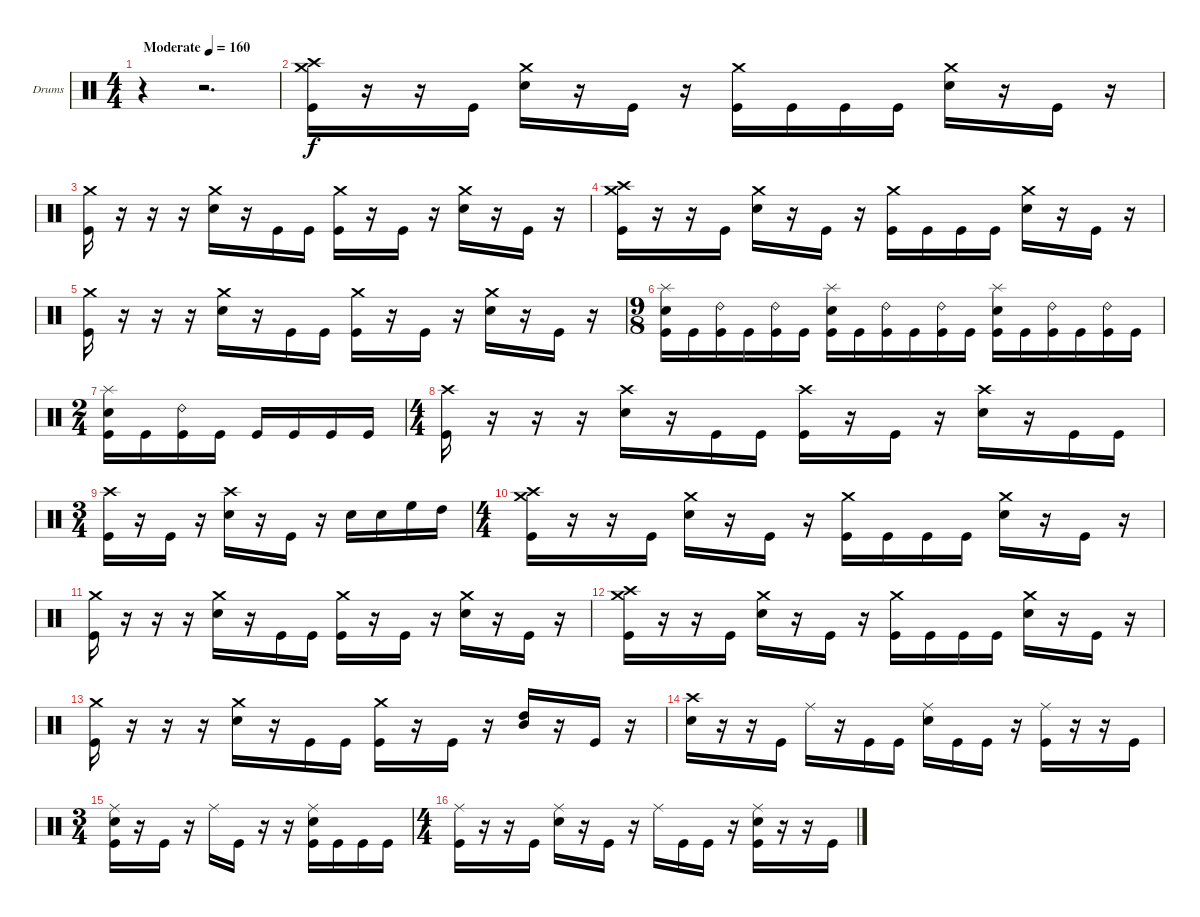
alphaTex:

\bracketExtendMode groupsimilarinstruments
\firstSystemTrackNameOrientation horizontal
\otherSystemsTrackNameOrientation horizontal
\track ("Drumkit" "Drums") {solo instrument percussion}
\staff {score}
\articulation defaults
\ts (4 4)
\beaming (8 2 2 2 2)
\tempo (160 "Moderate")
\clef neutral
\ks c
r.4{dy f} r.2{d} |
("Crash medium (hit)" "Crash high (hit)" "Kick (hit)").16 r.16 r.16 "Kick (hit)".16 ("Crash medium (hit)" "Snare (hit) 2").16 r.16 "Kick (hit)".16 r.16 ("Crash medium (hit)" "Kick (hit)").16 "Kick (hit)".16 "Kick (hit)".16 "Kick (hit)".16 ("Crash medium (hit)" "Snare (hit) 2").16 r.16 "Kick (hit)".16 r.16 |
("Crash medium (hit)" "Kick (hit)").16 r.16 r.16 r.16 ("Crash medium (hit)" "Snare (hit) 2").16 r.16 "Kick (hit)".16 "Kick (hit)".16 ("Crash medium (hit)" "Kick (hit)").16 r.16 "Kick (hit)".16 r.16 ("Crash medium (hit)" "Snare (hit) 2").16 r.16 "Kick (hit)".16 r.16 |
("Crash medium (hit)" "Crash high (hit)" "Kick (hit)").16 r.16 r.16 "Kick (hit)".16 ("Crash medium (hit)" "Snare (hit) 2").16 r.16 "Kick (hit)".16 r.16 ("Crash medium (hit)" "Kick (hit)").16 "Kick (hit)".16 "Kick (hit)".16 "Kick (hit)".16 ("Crash medium (hit)" "Snare (hit) 2").16 r.16 "Kick (hit)".16 r.16 |
("Crash medium (hit)" "Kick (hit)").16 r.16 r.16 r.16 ("Crash medium (hit)" "Snare (hit) 2").16 r.16 "Kick (hit)".16 "Kick (hit)".16 ("Crash medium (hit)" "Kick (hit)").16 r.16 "Kick (hit)".16 r.16 ("Crash medium (hit)" "Snare (hit) 2").16 r.16 "Kick (hit)".16 r.16 |
\ts (9 8)
\beaming (8 3 3 3)
("Splash (hit)" "Snare (hit) 2" "Kick (hit)").16 "Kick (hit)".16 ("Ride (bell) 2" "Kick (hit)").16 "Kick (hit)".16 ("Ride (bell) 2" "Kick (hit)").16 "Kick (hit)".16 ("Splash (hit)" "Snare (hit) 2" "Kick (hit)").16 "Kick (hit)".16 ("Ride (bell) 2" "Kick (hit)").16 "Kick (hit)".16 ("Ride (bell) 2" "Kick (hit)").16 "Kick (hit)".16 ("Splash (hit)" "Snare (hit) 2" "Kick (hit)").16 "Kick (hit)".16 ("Ride (bell) 2" "Kick (hit)").16 "Kick (hit)".16 ("Ride (bell) 2" "Kick (hit)").16 "Kick (hit)".16 |
\ts (2 4)
\beaming (8 2 2)
("Splash (hit)" "Snare (hit) 2" "Kick (hit)").16 "Kick (hit)".16 ("Ride (bell) 2" "Kick (hit)").16 "Kick (hit)".16 "Kick (hit)".16 "Kick (hit)".16 "Kick (hit)".16 "Kick (hit)".16 |
\ts (4 4)
\beaming (8 2 2 2 2)
("Crash high (hit)" "Kick (hit)").16 r.16 r.16 r.16 ("Crash high (hit)" "Snare (hit) 2").16 r.16 "Kick (hit)".16 "Kick (hit)".16 ("Crash high (hit)" "Kick (hit)").16 r.16 "Kick (hit)".16 r.16 ("Crash high (hit)" "Snare (hit) 2").16 r.16 "Kick (hit)".16 "Kick (hit)".16 |
\ts (3 4)
\beaming (8 2 2 2)
("Crash high (hit)" "Kick (hit)").16 r.16 "Kick (hit)".16 r.16 ("Crash high (hit)" "Snare (hit) 2").16 r.16 "Kick (hit)".16 r.16 "Snare (hit) 2".16 "Snare (hit) 2".16 "High Floor Tom (hit)".16 "High Tom (hit)".16 |
\ts (4 4)
\beaming (8 2 2 2 2)
("Crash medium (hit)" "Crash high (hit)" "Kick (hit)").16 r.16 r.16 "Kick (hit)".16 ("Crash medium (hit)" "Snare (hit) 2").16 r.16 "Kick (hit)".16 r.16 ("Crash medium (hit)" "Kick (hit)").16 "Kick (hit)".16 "Kick (hit)".16 "Kick (hit)".16 ("Crash medium (hit)" "Snare (hit) 2").16 r.16 "Kick (hit)".16 r.16 |
("Crash medium (hit)" "Kick (hit)").16 r.16 r.16 r.16 ("Crash medium (hit)" "Snare (hit) 2").16 r.16 "Kick (hit)".16 "Kick (hit)".16 ("Crash medium (hit)" "Kick (hit)").16 r.16 "Kick (hit)".16 r.16 ("Crash medium (hit)" "Snare (hit) 2").16 r.16 "Kick (hit)".16 r.16 |
("Crash medium (hit)" "Crash high (hit)" "Kick (hit)").16 r.16 r.16 "Kick (hit)".16 ("Crash medium (hit)" "Snare (hit) 2").16 r.16 "Kick (hit)".16 r.16 ("Crash medium (hit)" "Kick (hit)").16 "Kick (hit)".16 "Kick (hit)".16 "Kick (hit)".16 ("Crash medium (hit)" "Snare (hit) 2").16 r.16 "Kick (hit)".16 r.16 |
("Crash medium (hit)" "Kick (hit)").16 r.16 r.16 r.16 ("Crash medium (hit)" "Snare (hit) 2").16 r.16 "Kick (hit)".16 "Kick (hit)".16 ("Crash medium (hit)" "Kick (hit)").16 r.16 "Kick (hit)".16 r.16 ("High Tom (hit)" "Mid Tom (hit)").16 r.16 "Kick (hit)".16 r.16 |
("Crash high (hit)" "Snare (hit) 2").16 r.16 r.16 "Kick (hit)".16 "Ride (middle)".16 r.16 "Kick (hit)".16 "Kick (hit)".16 ("Ride (middle)" "Snare (hit) 2").16 "Kick (hit)".16 "Kick (hit)".16 r.16 ("Ride (middle)" "Kick (hit)").16 r.16 r.16 "Kick (hit)".16 |
\ts (3 4)
\beaming (8 2 2 2)
("Ride (middle)" "Snare (hit) 2" "Kick (hit)").16 r.16 "Kick (hit)".16 r.16 "Ride (middle)".16 "Kick (hit)".16 r.16 r.16 ("Ride (middle)" "Snare (hit) 2" "Kick (hit)").16 "Kick (hit)".16 "Kick (hit)".16 "Kick (hit)".16 |
\ts (4 4)
\beaming (8 2 2 2 2)
("Ride (middle)" "Kick (hit)").16 r.16 r.16 "Kick (hit)".16 ("Ride (middle)" "Snare (hit) 2").16 r.16 "Kick (hit)".16 r.16 "Ride (middle)".16 "Kick (hit)".16 "Kick (hit)".16 r.16 ("Ride (middle)" "Snare (hit) 2" "Kick (hit)").16 r.16 r.16 "Kick (hit)".16
